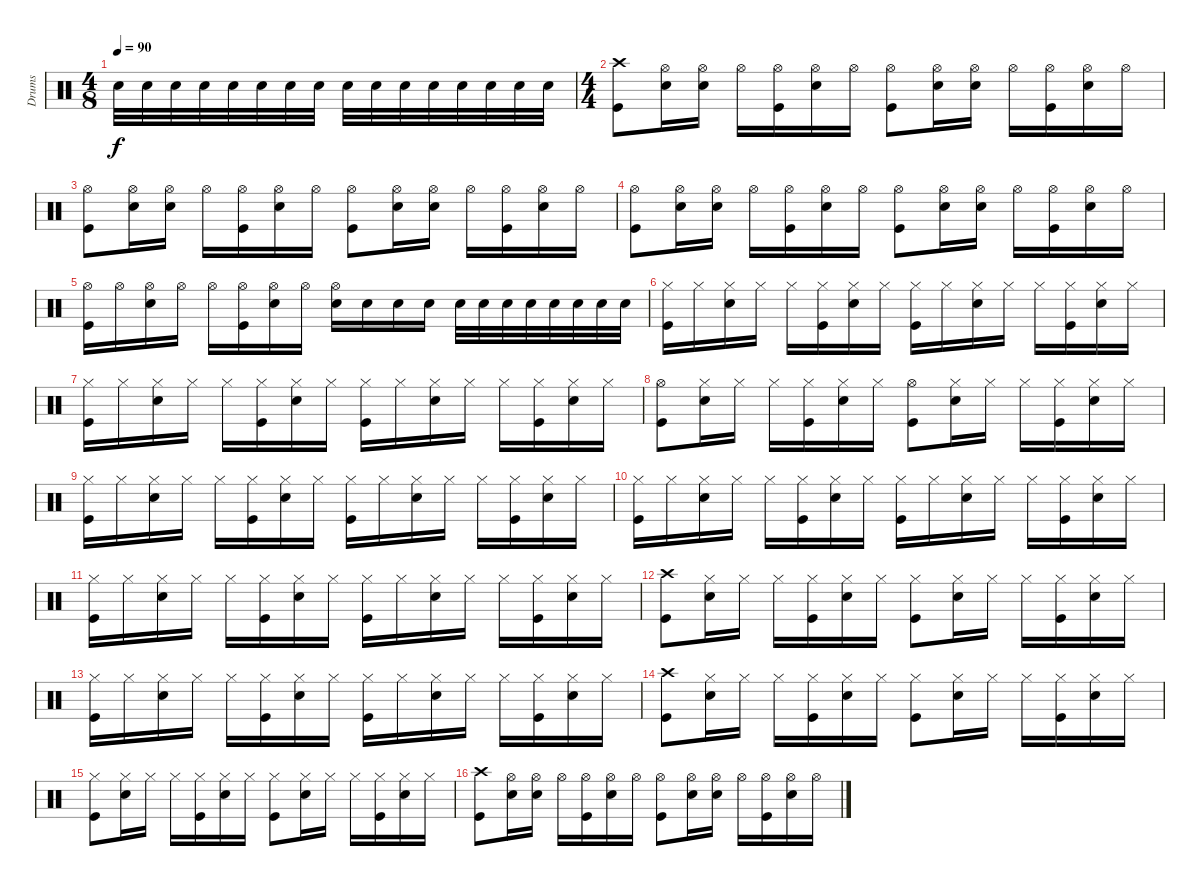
\track ("Drums" "Drums") {instrument percussion}
\staff {score}
\articulation defaults
\ts (4 8)
\tempo 90
\clef neutral
\ks c "Snare (hit) 2".32{dy f} "Snare (hit) 2".32 "Snare (hit) 2".32 "Snare (hit) 2".32 "Snare (hit) 2".32 "Snare (hit) 2".32 "Snare (hit) 2".32 "Snare (hit) 2".32 "Snare (hit) 2".32 "Snare (hit) 2".32 "Snare (hit) 2".32 "Snare (hit) 2".32 "Snare (hit) 2".32 "Snare (hit) 2".32 "Snare (hit) 2".32 "Snare (hit) 2".32
|
\ts (4 4)
("Crash high (hit)" "Kick (hit)").8 ("Hi-Hat (open)" "Snare (hit) 2").16 ("Hi-Hat (open)" "Snare (hit) 2").16 "Hi-Hat (open)".16 ("Hi-Hat (open)" "Kick (hit)").16 ("Hi-Hat (open)" "Snare (hit) 2").16 "Hi-Hat (open)".16 ("Hi-Hat (open)" "Kick (hit)").8 ("Hi-Hat (open)" "Snare (hit) 2").16 ("Hi-Hat (open)" "Snare (hit) 2").16 "Hi-Hat (open)".16 ("Hi-Hat (open)" "Kick (hit)").16 ("Hi-Hat (open)" "Snare (hit) 2").16 "Hi-Hat (open)".16 |
("Hi-Hat (open)" "Kick (hit)").8 ("Hi-Hat (open)" "Snare (hit) 2").16 ("Hi-Hat (open)" "Snare (hit) 2").16 "Hi-Hat (open)".16 ("Hi-Hat (open)" "Kick (hit)").16 ("Hi-Hat (open)" "Snare (hit) 2").16 "Hi-Hat (open)".16 ("Hi-Hat (open)" "Kick (hit)").8 ("Hi-Hat (open)" "Snare (hit) 2").16 ("Hi-Hat (open)" "Snare (hit) 2").16 "Hi-Hat (open)".16 ("Hi-Hat (open)" "Kick (hit)").16 ("Hi-Hat (open)" "Snare (hit) 2").16 "Hi-Hat (open)".16 |
("Hi-Hat (open)" "Kick (hit)").8 ("Hi-Hat (open)" "Snare (hit) 2").16 ("Hi-Hat (open)" "Snare (hit) 2").16 "Hi-Hat (open)".16 ("Hi-Hat (open)" "Kick (hit)").16 ("Hi-Hat (open)" "Snare (hit) 2").16 "Hi-Hat (open)".16 ("Hi-Hat (open)" "Kick (hit)").8 ("Hi-Hat (open)" "Snare (hit) 2").16 ("Hi-Hat (open)" "Snare (hit) 2").16 "Hi-Hat (open)".16 ("Hi-Hat (open)" "Kick (hit)").16 ("Hi-Hat (open)" "Snare (hit) 2").16 "Hi-Hat (open)".16 |
("Hi-Hat (open)" "Kick (hit)").16 "Hi-Hat (open)".16 ("Hi-Hat (open)" "Snare (hit) 2").16 "Hi-Hat (open)".16 "Hi-Hat (open)".16 ("Hi-Hat (open)" "Kick (hit)").16 ("Hi-Hat (open)" "Snare (hit) 2").16 "Hi-Hat (open)".16 ("Hi-Hat (open)" "Snare (hit) 2").16 "Snare (hit) 2".16 "Snare (hit) 2".16 "Snare (hit) 2".16 "Snare (hit) 2".32 "Snare (hit) 2".32 "Snare (hit) 2".32 "Snare (hit) 2".32 "Snare (hit) 2".32 "Snare (hit) 2".32 "Snare (hit) 2".32 "Snare (hit) 2".32 |
("Hi-Hat (closed)" "Kick (hit)").16 "Hi-Hat (closed)".16 ("Hi-Hat (closed)" "Snare (hit) 2").16 "Hi-Hat (closed)".16 "Hi-Hat (closed)".16 ("Hi-Hat (closed)" "Kick (hit)").16 ("Hi-Hat (closed)" "Snare (hit) 2").16 "Hi-Hat (closed)".16 ("Hi-Hat (closed)" "Kick (hit)").16 "Hi-Hat (closed)".16 ("Hi-Hat (closed)" "Snare (hit) 2").16 "Hi-Hat (closed)".16 "Hi-Hat (closed)".16 ("Hi-Hat (closed)" "Kick (hit)").16 ("Hi-Hat (closed)" "Snare (hit) 2").16 "Hi-Hat (closed)".16 |
("Hi-Hat (closed)" "Kick (hit)").16 "Hi-Hat (closed)".16 ("Hi-Hat (closed)" "Snare (hit) 2").16 "Hi-Hat (closed)".16 "Hi-Hat (closed)".16 ("Hi-Hat (closed)" "Kick (hit)").16 ("Hi-Hat (closed)" "Snare (hit) 2").16 "Hi-Hat (closed)".16 ("Hi-Hat (closed)" "Kick (hit)").16 "Hi-Hat (closed)".16 ("Hi-Hat (closed)" "Snare (hit) 2").16 "Hi-Hat (closed)".16 "Hi-Hat (closed)".16 ("Hi-Hat (closed)" "Kick (hit)").16 ("Hi-Hat (closed)" "Snare (hit) 2").16 "Hi-Hat (closed)".16 |
("Hi-Hat (open)" "Kick (hit)").8 ("Hi-Hat (closed)" "Snare (hit) 2").16 "Hi-Hat (closed)".16 "Hi-Hat (closed)".16 ("Hi-Hat (closed)" "Kick (hit)").16 ("Hi-Hat (closed)" "Snare (hit) 2").16 "Hi-Hat (closed)".16 ("Hi-Hat (open)" "Kick (hit)").8 ("Hi-Hat (closed)" "Snare (hit) 2").16 "Hi-Hat (closed)".16 "Hi-Hat (closed)".16 ("Hi-Hat (closed)" "Kick (hit)").16 ("Hi-Hat (closed)" "Snare (hit) 2").16 "Hi-Hat (closed)".16 |
("Hi-Hat (closed)" "Kick (hit)").16 "Hi-Hat (closed)".16 ("Hi-Hat (closed)" "Snare (hit) 2").16 "Hi-Hat (closed)".16 "Hi-Hat (closed)".16 ("Hi-Hat (closed)" "Kick (hit)").16 ("Hi-Hat (closed)" "Snare (hit) 2").16 "Hi-Hat (closed)".16 ("Hi-Hat (closed)" "Kick (hit)").16 "Hi-Hat (closed)".16 ("Hi-Hat (closed)" "Snare (hit) 2").16 "Hi-Hat (closed)".16 "Hi-Hat (closed)".16 ("Hi-Hat (closed)" "Kick (hit)").16 ("Hi-Hat (closed)" "Snare (hit) 2").16 "Hi-Hat (closed)".16 |
("Hi-Hat (closed)" "Kick (hit)").16 "Hi-Hat (closed)".16 ("Hi-Hat (closed)" "Snare (hit) 2").16 "Hi-Hat (closed)".16 "Hi-Hat (closed)".16 ("Hi-Hat (closed)" "Kick (hit)").16 ("Hi-Hat (closed)" "Snare (hit) 2").16 "Hi-Hat (closed)".16 ("Hi-Hat (closed)" "Kick (hit)").16 "Hi-Hat (closed)".16 ("Hi-Hat (closed)" "Snare (hit) 2").16 "Hi-Hat (closed)".16 "Hi-Hat (closed)".16 ("Hi-Hat (closed)" "Kick (hit)").16 ("Hi-Hat (closed)" "Snare (hit) 2").16 "Hi-Hat (closed)".16 |
("Hi-Hat (closed)" "Kick (hit)").16 "Hi-Hat (closed)".16 ("Hi-Hat (closed)" "Snare (hit) 2").16 "Hi-Hat (closed)".16 "Hi-Hat (closed)".16 ("Hi-Hat (closed)" "Kick (hit)").16 ("Hi-Hat (closed)" "Snare (hit) 2").16 "Hi-Hat (closed)".16 ("Hi-Hat (closed)" "Kick (hit)").16 "Hi-Hat (closed)".16 ("Hi-Hat (closed)" "Snare (hit) 2").16 "Hi-Hat (closed)".16 "Hi-Hat (closed)".16 ("Hi-Hat (closed)" "Kick (hit)").16 ("Hi-Hat (closed)" "Snare (hit) 2").16 "Hi-Hat (closed)".16 |
("Crash high (hit)" "Kick (hit)").8 ("Hi-Hat (closed)" "Snare (hit) 2").16 "Hi-Hat (closed)".16 "Hi-Hat (closed)".16 ("Hi-Hat (closed)" "Kick (hit)").16 ("Hi-Hat (closed)" "Snare (hit) 2").16 "Hi-Hat (closed)".16 ("Hi-Hat (closed)" "Kick (hit)").8 ("Hi-Hat (closed)" "Snare (hit) 2").16 "Hi-Hat (closed)".16 "Hi-Hat (closed)".16 ("Hi-Hat (closed)" "Kick (hit)").16 ("Hi-Hat (closed)" "Snare (hit) 2").16 "Hi-Hat (closed)".16 |
("Hi-Hat (closed)" "Kick (hit)").16 "Hi-Hat (closed)".16 ("Hi-Hat (closed)" "Snare (hit) 2").16 "Hi-Hat (closed)".16 "Hi-Hat (closed)".16 ("Hi-Hat (closed)" "Kick (hit)").16 ("Hi-Hat (closed)" "Snare (hit) 2").16 "Hi-Hat (closed)".16 ("Hi-Hat (closed)" "Kick (hit)").16 "Hi-Hat (closed)".16 ("Hi-Hat (closed)" "Snare (hit) 2").16 "Hi-Hat (closed)".16 "Hi-Hat (closed)".16 ("Hi-Hat (closed)" "Kick (hit)").16 ("Hi-Hat (closed)" "Snare (hit) 2").16 "Hi-Hat (closed)".16 |
("Crash high (hit)" "Kick (hit)").8 ("Hi-Hat (closed)" "Snare (hit) 2").16 "Hi-Hat (closed)".16 "Hi-Hat (closed)".16 ("Hi-Hat (closed)" "Kick (hit)").16 ("Hi-Hat (closed)" "Snare (hit) 2").16 "Hi-Hat (closed)".16 ("Hi-Hat (closed)" "Kick (hit)").8 ("Hi-Hat (closed)" "Snare (hit) 2").16 "Hi-Hat (closed)".16 "Hi-Hat (closed)".16 ("Hi-Hat (closed)" "Kick (hit)").16 ("Hi-Hat (closed)" "Snare (hit) 2").16 "Hi-Hat (closed)".16 |
("Hi-Hat (closed)" "Kick (hit)").8 ("Hi-Hat (closed)" "Snare (hit) 2").16 "Hi-Hat (closed)".16 "Hi-Hat (closed)".16 ("Hi-Hat (closed)" "Kick (hit)").16 ("Hi-Hat (closed)" "Snare (hit) 2").16 "Hi-Hat (closed)".16 ("Hi-Hat (closed)" "Kick (hit)").8 ("Hi-Hat (closed)" "Snare (hit) 2").16 "Hi-Hat (closed)".16 "Hi-Hat (closed)".16 ("Hi-Hat (closed)" "Kick (hit)").16 ("Hi-Hat (closed)" "Snare (hit) 2").16 "Hi-Hat (closed)".16 |
("Crash high (hit)" "Kick (hit)").8 ("Hi-Hat (open)" "Snare (hit) 2").16 ("Hi-Hat (open)" "Snare (hit) 2").16 "Hi-Hat (open)".16 ("Hi-Hat (open)" "Kick (hit)").16 ("Hi-Hat (open)" "Snare (hit) 2").16 "Hi-Hat (open)".16 ("Hi-Hat (open)" "Kick (hit)").8 ("Hi-Hat (open)" "Snare (hit) 2").16 ("Hi-Hat (open)" "Snare (hit) 2").16 "Hi-Hat (open)".16 ("Hi-Hat (open)" "Kick (hit)").16 ("Hi-Hat (open)" "Snare (hit) 2").16 "Hi-Hat (open)".16
